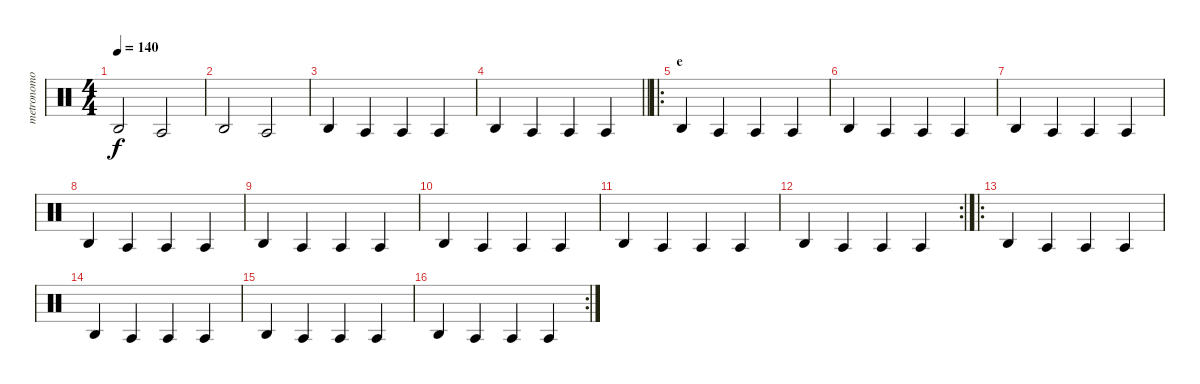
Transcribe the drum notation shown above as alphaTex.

\track ("metronomo" "metronomo") {mute instrument percussion}
\staff {score}
\articulation defaults
\ts (4 4)
\tempo 140
\clef neutral
\ks c "Agogo high (hit)".2{dy f} "Agogo tow (hit)".2
|
"Agogo high (hit)".2 "Agogo tow (hit)".2 |
"Agogo high (hit)".4 "Agogo tow (hit)".4 "Agogo tow (hit)".4 "Agogo tow (hit)".4 |
\barLineRight lightlight "Agogo high (hit)".4 "Agogo tow (hit)".4 "Agogo tow (hit)".4 "Agogo tow (hit)".4
|
\ro
\section ("" "e")
"Agogo high (hit)".4 "Agogo tow (hit)".4 "Agogo tow (hit)".4 "Agogo tow (hit)".4 |
"Agogo high (hit)".4 "Agogo tow (hit)".4 "Agogo tow (hit)".4 "Agogo tow (hit)".4 |
"Agogo high (hit)".4 "Agogo tow (hit)".4 "Agogo tow (hit)".4 "Agogo tow (hit)".4 |
"Agogo high (hit)".4 "Agogo tow (hit)".4 "Agogo tow (hit)".4 "Agogo tow (hit)".4 |
"Agogo high (hit)".4 "Agogo tow (hit)".4 "Agogo tow (hit)".4 "Agogo tow (hit)".4 |
"Agogo high (hit)".4 "Agogo tow (hit)".4 "Agogo tow (hit)".4 "Agogo tow (hit)".4 |
"Agogo high (hit)".4 "Agogo tow (hit)".4 "Agogo tow (hit)".4 "Agogo tow (hit)".4 |
\rc 2 "Agogo high (hit)".4 "Agogo tow (hit)".4 "Agogo tow (hit)".4 "Agogo tow (hit)".4
|
\ro "Agogo high (hit)".4 "Agogo tow (hit)".4 "Agogo tow (hit)".4 "Agogo tow (hit)".4
|
"Agogo high (hit)".4 "Agogo tow (hit)".4 "Agogo tow (hit)".4 "Agogo tow (hit)".4 |
"Agogo high (hit)".4 "Agogo tow (hit)".4 "Agogo tow (hit)".4 "Agogo tow (hit)".4 |
\rc 2 "Agogo high (hit)".4 "Agogo tow (hit)".4 "Agogo tow (hit)".4 "Agogo tow (hit)".4
